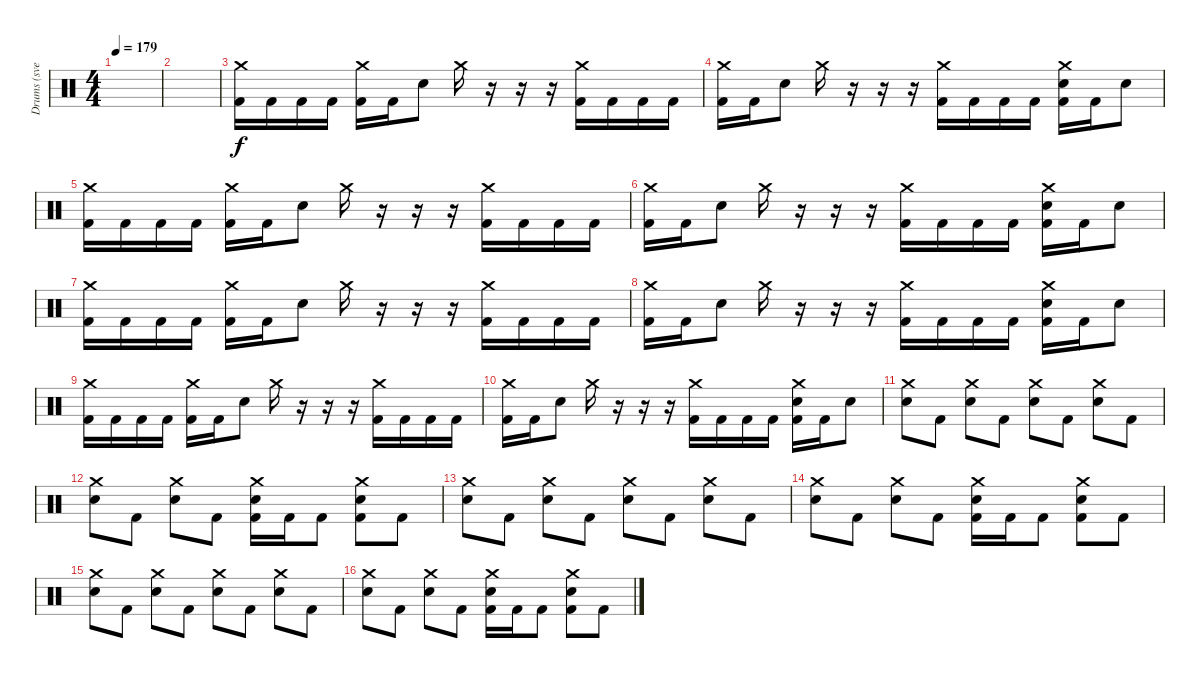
\track ("Drums (svelle)" "Drums (sve") {instrument percussion}
\staff {score}
\articulation defaults
\ts (4 4)
\tempo 179
\clef neutral
\ks c
|
|
("Crash medium (hit)" "Kick (hit) 2").16 "Kick (hit) 2".16 "Kick (hit) 2".16 "Kick (hit) 2".16 ("Crash medium (hit)" "Kick (hit) 2").16 "Kick (hit) 2".16 "Electric Snare (hit)".8 "Crash medium (hit)".16 r.16 r.16 r.16 ("Crash medium (hit)" "Kick (hit) 2").16 "Kick (hit) 2".16 "Kick (hit) 2".16 "Kick (hit) 2".16 |
("Crash medium (hit)" "Kick (hit) 2").16 "Kick (hit) 2".16 "Electric Snare (hit)".8 "Crash medium (hit)".16 r.16 r.16 r.16 ("Crash medium (hit)" "Kick (hit) 2").16 "Kick (hit) 2".16 "Kick (hit) 2".16 "Kick (hit) 2".16 ("Crash medium (hit)" "Electric Snare (hit)" "Kick (hit) 2").16 "Kick (hit) 2".16 "Electric Snare (hit)".8 |
("Crash medium (hit)" "Kick (hit) 2").16 "Kick (hit) 2".16 "Kick (hit) 2".16 "Kick (hit) 2".16 ("Crash medium (hit)" "Kick (hit) 2").16 "Kick (hit) 2".16 "Electric Snare (hit)".8 "Crash medium (hit)".16 r.16 r.16 r.16 ("Crash medium (hit)" "Kick (hit) 2").16 "Kick (hit) 2".16 "Kick (hit) 2".16 "Kick (hit) 2".16 |
("Crash medium (hit)" "Kick (hit) 2").16 "Kick (hit) 2".16 "Electric Snare (hit)".8 "Crash medium (hit)".16 r.16 r.16 r.16 ("Crash medium (hit)" "Kick (hit) 2").16 "Kick (hit) 2".16 "Kick (hit) 2".16 "Kick (hit) 2".16 ("Crash medium (hit)" "Electric Snare (hit)" "Kick (hit) 2").16 "Kick (hit) 2".16 "Electric Snare (hit)".8 |
("Crash medium (hit)" "Kick (hit) 2").16 "Kick (hit) 2".16 "Kick (hit) 2".16 "Kick (hit) 2".16 ("Crash medium (hit)" "Kick (hit) 2").16 "Kick (hit) 2".16 "Electric Snare (hit)".8 "Crash medium (hit)".16 r.16 r.16 r.16 ("Crash medium (hit)" "Kick (hit) 2").16 "Kick (hit) 2".16 "Kick (hit) 2".16 "Kick (hit) 2".16 |
("Crash medium (hit)" "Kick (hit) 2").16 "Kick (hit) 2".16 "Electric Snare (hit)".8 "Crash medium (hit)".16 r.16 r.16 r.16 ("Crash medium (hit)" "Kick (hit) 2").16 "Kick (hit) 2".16 "Kick (hit) 2".16 "Kick (hit) 2".16 ("Crash medium (hit)" "Electric Snare (hit)" "Kick (hit) 2").16 "Kick (hit) 2".16 "Electric Snare (hit)".8 |
("Crash medium (hit)" "Kick (hit) 2").16 "Kick (hit) 2".16 "Kick (hit) 2".16 "Kick (hit) 2".16 ("Crash medium (hit)" "Kick (hit) 2").16 "Kick (hit) 2".16 "Electric Snare (hit)".8 "Crash medium (hit)".16 r.16 r.16 r.16 ("Crash medium (hit)" "Kick (hit) 2").16 "Kick (hit) 2".16 "Kick (hit) 2".16 "Kick (hit) 2".16 |
("Crash medium (hit)" "Kick (hit) 2").16 "Kick (hit) 2".16 "Electric Snare (hit)".8 "Crash medium (hit)".16 r.16 r.16 r.16 ("Crash medium (hit)" "Kick (hit) 2").16 "Kick (hit) 2".16 "Kick (hit) 2".16 "Kick (hit) 2".16 ("Crash medium (hit)" "Electric Snare (hit)" "Kick (hit) 2").16 "Kick (hit) 2".16 "Electric Snare (hit)".8 |
("Crash medium (hit)" "Electric Snare (hit)").8 "Kick (hit) 2".8 ("Crash medium (hit)" "Electric Snare (hit)").8 "Kick (hit) 2".8 ("Crash medium (hit)" "Electric Snare (hit)").8 "Kick (hit) 2".8 ("Crash medium (hit)" "Electric Snare (hit)").8 "Kick (hit) 2".8 |
("Crash medium (hit)" "Electric Snare (hit)").8 "Kick (hit) 2".8 ("Crash medium (hit)" "Electric Snare (hit)").8 "Kick (hit) 2".8 ("Crash medium (hit)" "Electric Snare (hit)" "Kick (hit) 2").16 "Kick (hit) 2".16 "Kick (hit) 2".8 ("Crash medium (hit)" "Electric Snare (hit)" "Kick (hit) 2").8 "Kick (hit) 2".8 |
("Crash medium (hit)" "Electric Snare (hit)").8 "Kick (hit) 2".8 ("Crash medium (hit)" "Electric Snare (hit)").8 "Kick (hit) 2".8 ("Crash medium (hit)" "Electric Snare (hit)").8 "Kick (hit) 2".8 ("Crash medium (hit)" "Electric Snare (hit)").8 "Kick (hit) 2".8 |
("Crash medium (hit)" "Electric Snare (hit)").8 "Kick (hit) 2".8 ("Crash medium (hit)" "Electric Snare (hit)").8 "Kick (hit) 2".8 ("Crash medium (hit)" "Electric Snare (hit)" "Kick (hit) 2").16 "Kick (hit) 2".16 "Kick (hit) 2".8 ("Crash medium (hit)" "Electric Snare (hit)" "Kick (hit) 2").8 "Kick (hit) 2".8 |
("Crash medium (hit)" "Electric Snare (hit)").8 "Kick (hit) 2".8 ("Crash medium (hit)" "Electric Snare (hit)").8 "Kick (hit) 2".8 ("Crash medium (hit)" "Electric Snare (hit)").8 "Kick (hit) 2".8 ("Crash medium (hit)" "Electric Snare (hit)").8 "Kick (hit) 2".8 |
("Crash medium (hit)" "Electric Snare (hit)").8 "Kick (hit) 2".8 ("Crash medium (hit)" "Electric Snare (hit)").8 "Kick (hit) 2".8 ("Crash medium (hit)" "Electric Snare (hit)" "Kick (hit) 2").16 "Kick (hit) 2".16 "Kick (hit) 2".8 ("Crash medium (hit)" "Electric Snare (hit)" "Kick (hit) 2").8 "Kick (hit) 2".8
